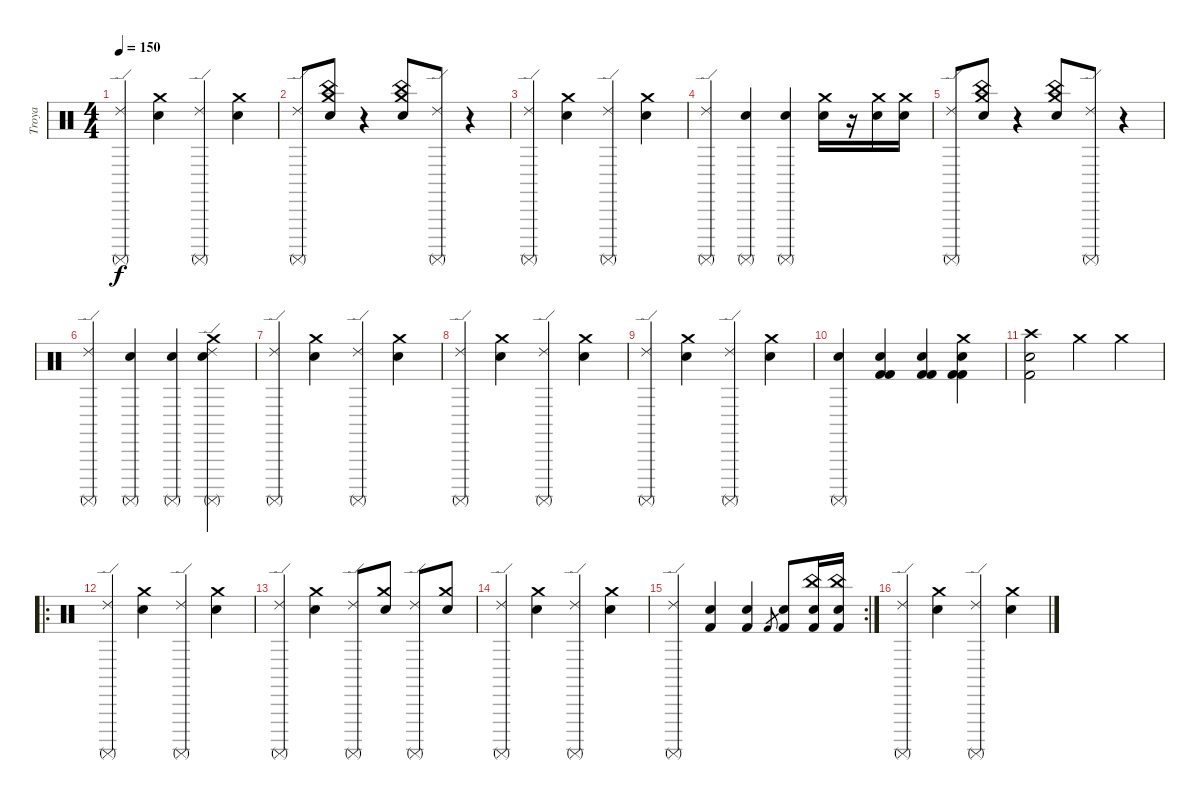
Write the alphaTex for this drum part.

\track ("Troya" "Troya") {instrument percussion}
\staff {score}
\articulation defaults
\ts (4 4)
\tempo 150
\clef neutral
\ks c
("Ride (edge) 2" "Surdo (mute)").4{dy f} ("Crash medium (hit)" "Electric Snare (hit)").4 ("Ride (edge) 2" "Surdo (mute)").4 ("Crash medium (hit)" "Electric Snare (hit)").4 |
("Ride (edge) 2" "Surdo (mute)").8 ("China (hit)" "Crash medium (hit)" "Electric Snare (hit)").8 r.4 ("China (hit)" "Crash medium (hit)" "Electric Snare (hit)").8 ("Ride (edge) 2" "Surdo (mute)").8 r.4 |
("Ride (edge) 2" "Surdo (mute)").4 ("Crash medium (hit)" "Electric Snare (hit)").4 ("Ride (edge) 2" "Surdo (mute)").4 ("Crash medium (hit)" "Electric Snare (hit)").4 |
("Ride (edge) 2" "Surdo (mute)").4 ("Surdo (mute)" "Electric Snare (hit)").4 ("Surdo (mute)" "Electric Snare (hit)").4 ("Crash medium (hit)" "Snare (hit) 2").16 r.16 ("Crash medium (hit)" "Snare (hit) 2").16 ("Crash medium (hit)" "Snare (hit) 2").16 |
("Ride (edge) 2" "Surdo (mute)").8 ("China (hit)" "Crash medium (hit)" "Electric Snare (hit)").8 r.4 ("China (hit)" "Crash medium (hit)" "Electric Snare (hit)").8 ("Ride (edge) 2" "Surdo (mute)").8 r.4 |
("Ride (edge) 2" "Surdo (mute)").4 ("Surdo (mute)" "Electric Snare (hit)").4 ("Surdo (mute)" "Electric Snare (hit)").4 ("Surdo (mute)" "Electric Snare (hit)" "Ride (edge) 2" "Crash medium (hit)").4 |
("Ride (edge) 2" "Surdo (mute)").4 ("Crash medium (hit)" "Electric Snare (hit)").4 ("Ride (edge) 2" "Surdo (mute)").4 ("Crash medium (hit)" "Electric Snare (hit)").4 |
("Ride (edge) 2" "Surdo (mute)").4 ("Crash medium (hit)" "Electric Snare (hit)").4 ("Ride (edge) 2" "Surdo (mute)").4 ("Crash medium (hit)" "Electric Snare (hit)").4 |
("Ride (edge) 2" "Surdo (mute)").4 ("Crash medium (hit)" "Electric Snare (hit)").4 ("Ride (edge) 2" "Surdo (mute)").4 ("Crash medium (hit)" "Electric Snare (hit)").4 |
("Electric Snare (hit)" "Surdo (mute)").4 ("Electric Snare (hit)" "Kick (hit) 2" "Kick (hit) 2").4 ("Electric Snare (hit)" "Kick (hit) 2" "Kick (hit) 2").4 ("Crash medium (hit)" "Kick (hit) 2" "Kick (hit) 2" "Electric Snare (hit)").4 |
("Crash high (hit)" "Snare (hit) 2" "Kick (hit) 2").2 "Crash medium (hit)".4 "Crash medium (hit)".4 |
\ro
("Ride (edge) 2" "Surdo (mute)").4 ("Crash medium (hit)" "Electric Snare (hit)").4 ("Ride (edge) 2" "Surdo (mute)").4 ("Crash medium (hit)" "Electric Snare (hit)").4 |
("Ride (edge) 2" "Surdo (mute)").4 ("Crash medium (hit)" "Electric Snare (hit)").4 ("Ride (edge) 2" "Surdo (mute)").8 ("Crash medium (hit)" "Electric Snare (hit)").8 ("Ride (edge) 2" "Surdo (mute)").8 ("Crash medium (hit)" "Electric Snare (hit)").8 |
("Ride (edge) 2" "Surdo (mute)").4 ("Crash medium (hit)" "Electric Snare (hit)").4 ("Ride (edge) 2" "Surdo (mute)").4 ("Crash medium (hit)" "Electric Snare (hit)").4 |
\rc 2
("Ride (edge) 2" "Surdo (mute)").4 ("Electric Snare (hit)" "Kick (hit) 2").4 ("Electric Snare (hit)" "Kick (hit) 2").4 "Kick (hit) 2".8{gr} ("Electric Snare (hit)" "Kick (hit) 2").8 ("China (hit)" "Electric Snare (hit)" "Kick (hit) 2").16 ("China (hit)" "Electric Snare (hit)" "Kick (hit) 2").16 |
("Ride (edge) 2" "Surdo (mute)").4 ("Crash medium (hit)" "Electric Snare (hit)").4 ("Ride (edge) 2" "Surdo (mute)").4 ("Crash medium (hit)" "Electric Snare (hit)").4
